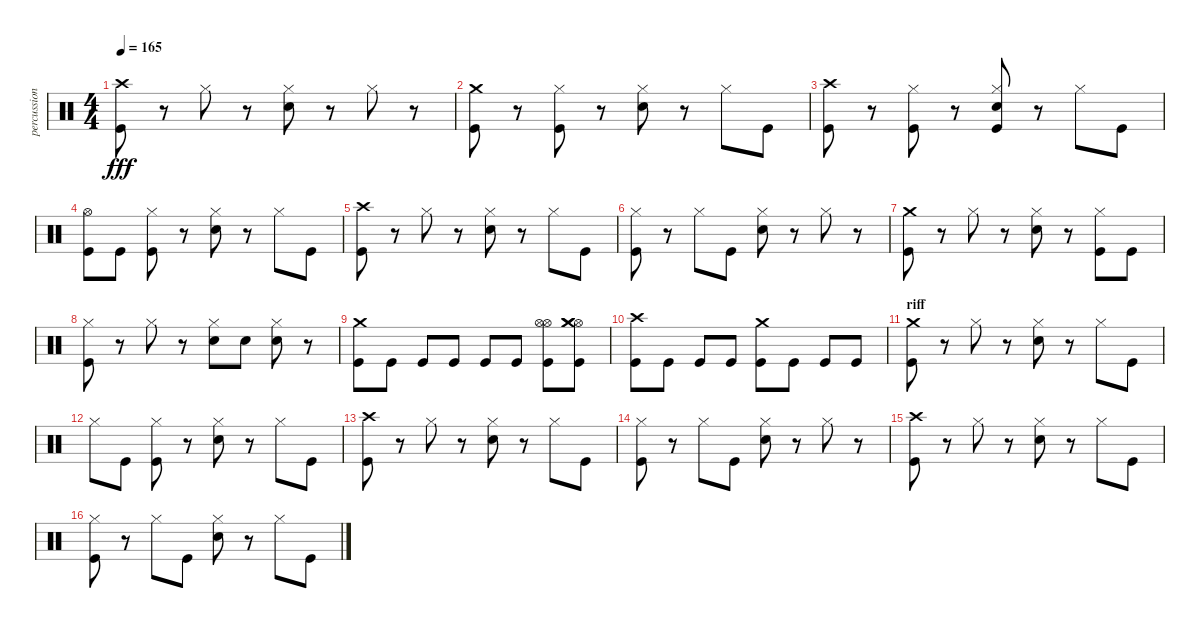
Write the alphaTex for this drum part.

\track ("percussion (Paice)" "percussion") {instrument percussion}
\staff {score}
\articulation defaults
\ts (4 4)
\tempo 165
\clef neutral
\ks c
("Crash high (hit)" "Kick (hit)").8{dy fff} r.8 "Hi-Hat (closed)".8 r.8 ("Snare (hit) 2" "Hi-Hat (closed)").8 r.8 "Hi-Hat (closed)".8 r.8 |
("Kick (hit)" "Crash medium (hit)").8 r.8 ("Kick (hit)" "Hi-Hat (closed)").8 r.8 ("Snare (hit) 2" "Hi-Hat (closed)").8 r.8 "Hi-Hat (closed)".8 "Kick (hit)".8 |
("Crash high (hit)" "Kick (hit)").8 r.8 ("Kick (hit)" "Hi-Hat (closed)").8 r.8 ("Kick (hit)" "Snare (hit) 2" "Hi-Hat (closed)").8 r.8 "Hi-Hat (closed)".8 "Kick (hit)".8 |
("Kick (hit)" "Hi-Hat (open)").8 "Kick (hit)".8 ("Kick (hit)" "Hi-Hat (closed)").8 r.8 ("Snare (hit) 2" "Hi-Hat (closed)").8 r.8 "Hi-Hat (closed)".8 "Kick (hit)".8 |
("Crash high (hit)" "Kick (hit)").8 r.8 "Hi-Hat (closed)".8 r.8 ("Snare (hit) 2" "Hi-Hat (closed)").8 r.8 "Hi-Hat (closed)".8 "Kick (hit)".8 |
("Kick (hit)" "Hi-Hat (closed)").8 r.8 "Hi-Hat (closed)".8 "Kick (hit)".8 ("Snare (hit) 2" "Hi-Hat (closed)").8 r.8 "Hi-Hat (closed)".8 r.8 |
("Crash medium (hit)" "Kick (hit)").8 r.8 "Hi-Hat (closed)".8 r.8 ("Snare (hit) 2" "Hi-Hat (closed)").8 r.8 ("Hi-Hat (closed)" "Kick (hit)").8 "Kick (hit)".8 |
("Kick (hit)" "Hi-Hat (closed)").8 r.8 "Hi-Hat (closed)".8 r.8 ("Snare (hit) 2" "Hi-Hat (closed)").8 "Snare (hit) 2".8 ("Snare (hit) 2" "Hi-Hat (closed)").8 r.8 |
("Crash medium (hit)" "Kick (hit)").8 "Kick (hit)".8 "Kick (hit)".8 "Kick (hit)".8 "Kick (hit)".8 "Kick (hit)".8 ("Hi-Hat (open)" "Kick (hit)" "Hi-Hat (open)").8{volume 15} ("Hi-Hat (open)" "Crash medium (hit)" "Kick (hit)" "Crash medium (hit)").8 |
("Crash high (hit)" "Kick (hit)").8 "Kick (hit)".8{volume 15} "Kick (hit)".8 "Kick (hit)".8 ("Crash medium (hit)" "Kick (hit)").8 "Kick (hit)".8 "Kick (hit)".8 "Kick (hit)".8 |
\section ("" "riff")
("Kick (hit)" "Crash medium (hit)").8 r.8 "Hi-Hat (closed)".8 r.8 ("Snare (hit) 2" "Hi-Hat (closed)").8 r.8 "Hi-Hat (closed)".8 "Kick (hit)".8 |
"Hi-Hat (closed)".8 "Kick (hit)".8 ("Kick (hit)" "Hi-Hat (closed)").8 r.8 ("Snare (hit) 2" "Hi-Hat (closed)").8 r.8 "Hi-Hat (closed)".8 "Kick (hit)".8 |
("Crash high (hit)" "Kick (hit)").8 r.8 "Hi-Hat (closed)".8 r.8 ("Snare (hit) 2" "Hi-Hat (closed)").8 r.8 "Hi-Hat (closed)".8 "Kick (hit)".8 |
("Kick (hit)" "Hi-Hat (closed)").8 r.8 "Hi-Hat (closed)".8 "Kick (hit)".8 ("Snare (hit) 2" "Hi-Hat (closed)").8 r.8 "Hi-Hat (closed)".8 r.8 |
("Crash high (hit)" "Kick (hit)").8 r.8 "Hi-Hat (closed)".8 r.8 ("Snare (hit) 2" "Hi-Hat (closed)").8 r.8 "Hi-Hat (closed)".8 "Kick (hit)".8 |
("Kick (hit)" "Hi-Hat (closed)").8 r.8 "Hi-Hat (closed)".8 "Kick (hit)".8 ("Snare (hit) 2" "Hi-Hat (closed)").8 r.8 "Hi-Hat (closed)".8 "Kick (hit)".8
